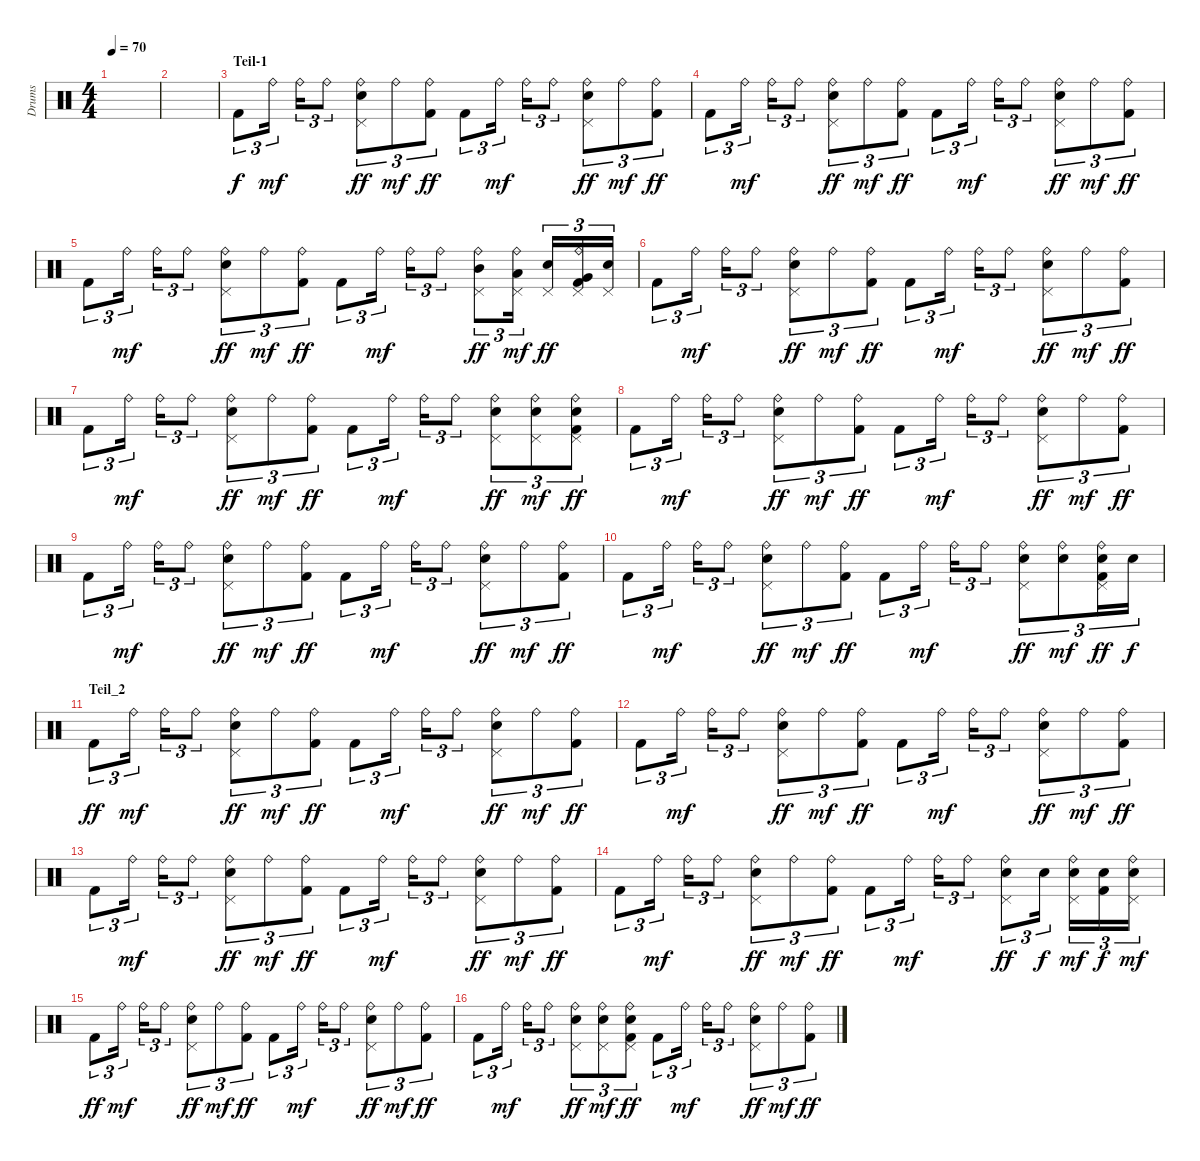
\track ("Drums" "Drums") {instrument percussion}
\staff {score}
\articulation defaults
\ts (4 4)
\tempo 70
\clef neutral
\ks c
|
|
\section ("" "Teil-1")
"Kick (hit) 2".8{tu (3 2)} "Ride (bell)".16{tu (3 2) dy mf} "Ride (bell)".16{tu (3 2)} "Ride (bell)".8{tu (3 2)} ("Ride (bell)" "Pedal Hi-Hat (hit)" "Electric Snare (hit)").8{tu (3 2) dy ff} "Ride (bell)".8{tu (3 2) dy mf} ("Ride (bell)" "Kick (hit) 2").8{tu (3 2) dy ff} "Kick (hit) 2".8{tu (3 2)} "Ride (bell)".16{tu (3 2) dy mf} "Ride (bell)".16{tu (3 2)} "Ride (bell)".8{tu (3 2)} ("Ride (bell)" "Pedal Hi-Hat (hit)" "Electric Snare (hit)").8{tu (3 2) dy ff} "Ride (bell)".8{tu (3 2) dy mf} ("Ride (bell)" "Kick (hit) 2").8{tu (3 2) dy ff} |
"Kick (hit) 2".8{tu (3 2)} "Ride (bell)".16{tu (3 2) dy mf} "Ride (bell)".16{tu (3 2)} "Ride (bell)".8{tu (3 2)} ("Ride (bell)" "Pedal Hi-Hat (hit)" "Electric Snare (hit)").8{tu (3 2) dy ff} "Ride (bell)".8{tu (3 2) dy mf} ("Ride (bell)" "Kick (hit) 2").8{tu (3 2) dy ff} "Kick (hit) 2".8{tu (3 2)} "Ride (bell)".16{tu (3 2) dy mf} "Ride (bell)".16{tu (3 2)} "Ride (bell)".8{tu (3 2)} ("Ride (bell)" "Pedal Hi-Hat (hit)" "Electric Snare (hit)").8{tu (3 2) dy ff} "Ride (bell)".8{tu (3 2) dy mf} ("Ride (bell)" "Kick (hit) 2").8{tu (3 2) dy ff} |
"Kick (hit) 2".8{tu (3 2)} "Ride (bell)".16{tu (3 2) dy mf} "Ride (bell)".16{tu (3 2)} "Ride (bell)".8{tu (3 2)} ("Ride (bell)" "Pedal Hi-Hat (hit)" "Electric Snare (hit)").8{tu (3 2) dy ff} "Ride (bell)".8{tu (3 2) dy mf} ("Ride (bell)" "Kick (hit) 2").8{tu (3 2) dy ff} "Kick (hit) 2".8{tu (3 2)} "Ride (bell)".16{tu (3 2) dy mf} "Ride (bell)".16{tu (3 2)} "Ride (bell)".8{tu (3 2)} ("Ride (bell)" "Pedal Hi-Hat (hit)" "Mid Tom (hit)").8{tu (3 2) dy ff} ("Ride (bell)" "Pedal Hi-Hat (hit)" "Low Tom (hit)").16{tu (3 2) dy mf} ("Pedal Hi-Hat (hit)" "Electric Snare (hit)").16{tu (3 2) dy ff} ("Ride (bell)" "Pedal Hi-Hat (hit)" "Very Low Tom (hit)" "Kick (hit) 2").16{tu (3 2)} ("Pedal Hi-Hat (hit)" "Electric Snare (hit)").16{tu (3 2)} |
"Kick (hit) 2".8{tu (3 2)} "Ride (bell)".16{tu (3 2) dy mf} "Ride (bell)".16{tu (3 2)} "Ride (bell)".8{tu (3 2)} ("Ride (bell)" "Pedal Hi-Hat (hit)" "Electric Snare (hit)").8{tu (3 2) dy ff} "Ride (bell)".8{tu (3 2) dy mf} ("Ride (bell)" "Kick (hit) 2").8{tu (3 2) dy ff} "Kick (hit) 2".8{tu (3 2)} "Ride (bell)".16{tu (3 2) dy mf} "Ride (bell)".16{tu (3 2)} "Ride (bell)".8{tu (3 2)} ("Ride (bell)" "Pedal Hi-Hat (hit)" "Electric Snare (hit)").8{tu (3 2) dy ff} "Ride (bell)".8{tu (3 2) dy mf} ("Ride (bell)" "Kick (hit) 2").8{tu (3 2) dy ff} |
"Kick (hit) 2".8{tu (3 2)} "Ride (bell)".16{tu (3 2) dy mf} "Ride (bell)".16{tu (3 2)} "Ride (bell)".8{tu (3 2)} ("Ride (bell)" "Pedal Hi-Hat (hit)" "Electric Snare (hit)").8{tu (3 2) dy ff} "Ride (bell)".8{tu (3 2) dy mf} ("Ride (bell)" "Kick (hit) 2").8{tu (3 2) dy ff} "Kick (hit) 2".8{tu (3 2)} "Ride (bell)".16{tu (3 2) dy mf} "Ride (bell)".16{tu (3 2)} "Ride (bell)".8{tu (3 2)} ("Ride (bell)" "Pedal Hi-Hat (hit)" "Electric Snare (hit)").8{tu (3 2) dy ff} ("Ride (bell)" "Pedal Hi-Hat (hit)" "Electric Snare (hit)").8{tu (3 2) dy mf} ("Ride (bell)" "Pedal Hi-Hat (hit)" "Electric Snare (hit)" "Kick (hit) 2").8{tu (3 2) dy ff} |
"Kick (hit) 2".8{tu (3 2)} "Ride (bell)".16{tu (3 2) dy mf} "Ride (bell)".16{tu (3 2)} "Ride (bell)".8{tu (3 2)} ("Ride (bell)" "Pedal Hi-Hat (hit)" "Electric Snare (hit)").8{tu (3 2) dy ff} "Ride (bell)".8{tu (3 2) dy mf} ("Ride (bell)" "Kick (hit) 2").8{tu (3 2) dy ff} "Kick (hit) 2".8{tu (3 2)} "Ride (bell)".16{tu (3 2) dy mf} "Ride (bell)".16{tu (3 2)} "Ride (bell)".8{tu (3 2)} ("Ride (bell)" "Pedal Hi-Hat (hit)" "Electric Snare (hit)").8{tu (3 2) dy ff} "Ride (bell)".8{tu (3 2) dy mf} ("Ride (bell)" "Kick (hit) 2").8{tu (3 2) dy ff} |
"Kick (hit) 2".8{tu (3 2)} "Ride (bell)".16{tu (3 2) dy mf} "Ride (bell)".16{tu (3 2)} "Ride (bell)".8{tu (3 2)} ("Ride (bell)" "Pedal Hi-Hat (hit)" "Electric Snare (hit)").8{tu (3 2) dy ff} "Ride (bell)".8{tu (3 2) dy mf} ("Ride (bell)" "Kick (hit) 2").8{tu (3 2) dy ff} "Kick (hit) 2".8{tu (3 2)} "Ride (bell)".16{tu (3 2) dy mf} "Ride (bell)".16{tu (3 2)} "Ride (bell)".8{tu (3 2)} ("Ride (bell)" "Pedal Hi-Hat (hit)" "Electric Snare (hit)").8{tu (3 2) dy ff} "Ride (bell)".8{tu (3 2) dy mf} ("Ride (bell)" "Kick (hit) 2").8{tu (3 2) dy ff} |
"Kick (hit) 2".8{tu (3 2)} "Ride (bell)".16{tu (3 2) dy mf} "Ride (bell)".16{tu (3 2)} "Ride (bell)".8{tu (3 2)} ("Ride (bell)" "Pedal Hi-Hat (hit)" "Electric Snare (hit)").8{tu (3 2) dy ff} "Ride (bell)".8{tu (3 2) dy mf} ("Ride (bell)" "Kick (hit) 2").8{tu (3 2) dy ff} "Kick (hit) 2".8{tu (3 2)} "Ride (bell)".16{tu (3 2) dy mf} "Ride (bell)".16{tu (3 2)} "Ride (bell)".8{tu (3 2)} ("Ride (bell)" "Pedal Hi-Hat (hit)" "Electric Snare (hit)").8{tu (3 2) dy ff} ("Ride (bell)" "Electric Snare (hit)").8{tu (3 2) dy mf} ("Ride (bell)" "Pedal Hi-Hat (hit)" "Electric Snare (hit)" "Kick (hit) 2").16{tu (3 2) dy ff} "Electric Snare (hit)".16{tu (3 2) dy f} |
\section ("" "Teil_2")
"Kick (hit) 2".8{tu (3 2) dy ff} "Ride (bell)".16{tu (3 2) dy mf} "Ride (bell)".16{tu (3 2)} "Ride (bell)".8{tu (3 2)} ("Ride (bell)" "Pedal Hi-Hat (hit)" "Electric Snare (hit)").8{tu (3 2) dy ff} "Ride (bell)".8{tu (3 2) dy mf} ("Ride (bell)" "Kick (hit) 2").8{tu (3 2) dy ff} "Kick (hit) 2".8{tu (3 2)} "Ride (bell)".16{tu (3 2) dy mf} "Ride (bell)".16{tu (3 2)} "Ride (bell)".8{tu (3 2)} ("Ride (bell)" "Pedal Hi-Hat (hit)" "Electric Snare (hit)").8{tu (3 2) dy ff} "Ride (bell)".8{tu (3 2) dy mf} ("Ride (bell)" "Kick (hit) 2").8{tu (3 2) dy ff} |
"Kick (hit) 2".8{tu (3 2)} "Ride (bell)".16{tu (3 2) dy mf} "Ride (bell)".16{tu (3 2)} "Ride (bell)".8{tu (3 2)} ("Ride (bell)" "Pedal Hi-Hat (hit)" "Electric Snare (hit)").8{tu (3 2) dy ff} "Ride (bell)".8{tu (3 2) dy mf} ("Ride (bell)" "Kick (hit) 2").8{tu (3 2) dy ff} "Kick (hit) 2".8{tu (3 2)} "Ride (bell)".16{tu (3 2) dy mf} "Ride (bell)".16{tu (3 2)} "Ride (bell)".8{tu (3 2)} ("Ride (bell)" "Pedal Hi-Hat (hit)" "Electric Snare (hit)").8{tu (3 2) dy ff} "Ride (bell)".8{tu (3 2) dy mf} ("Ride (bell)" "Kick (hit) 2").8{tu (3 2) dy ff} |
"Kick (hit) 2".8{tu (3 2)} "Ride (bell)".16{tu (3 2) dy mf} "Ride (bell)".16{tu (3 2)} "Ride (bell)".8{tu (3 2)} ("Ride (bell)" "Pedal Hi-Hat (hit)" "Electric Snare (hit)").8{tu (3 2) dy ff} "Ride (bell)".8{tu (3 2) dy mf} ("Ride (bell)" "Kick (hit) 2").8{tu (3 2) dy ff} "Kick (hit) 2".8{tu (3 2)} "Ride (bell)".16{tu (3 2) dy mf} "Ride (bell)".16{tu (3 2)} "Ride (bell)".8{tu (3 2)} ("Ride (bell)" "Pedal Hi-Hat (hit)" "Electric Snare (hit)").8{tu (3 2) dy ff} "Ride (bell)".8{tu (3 2) dy mf} ("Ride (bell)" "Kick (hit) 2").8{tu (3 2) dy ff} |
"Kick (hit) 2".8{tu (3 2)} "Ride (bell)".16{tu (3 2) dy mf} "Ride (bell)".16{tu (3 2)} "Ride (bell)".8{tu (3 2)} ("Ride (bell)" "Pedal Hi-Hat (hit)" "Electric Snare (hit)").8{tu (3 2) dy ff} "Ride (bell)".8{tu (3 2) dy mf} ("Ride (bell)" "Kick (hit) 2").8{tu (3 2) dy ff} "Kick (hit) 2".8{tu (3 2)} "Ride (bell)".16{tu (3 2) dy mf} "Ride (bell)".16{tu (3 2)} "Ride (bell)".8{tu (3 2)} ("Ride (bell)" "Pedal Hi-Hat (hit)" "Electric Snare (hit)").8{tu (3 2) dy ff} "Electric Snare (hit)".16{tu (3 2) dy f} ("Ride (bell)" "Pedal Hi-Hat (hit)" "Electric Snare (hit)").16{tu (3 2) dy mf} ("Electric Snare (hit)" "Kick (hit) 2").16{tu (3 2) dy f} ("Ride (bell)" "Pedal Hi-Hat (hit)" "Electric Snare (hit)").16{tu (3 2) dy mf} |
"Kick (hit) 2".8{tu (3 2) dy ff} "Ride (bell)".16{tu (3 2) dy mf} "Ride (bell)".16{tu (3 2)} "Ride (bell)".8{tu (3 2)} ("Ride (bell)" "Pedal Hi-Hat (hit)" "Electric Snare (hit)").8{tu (3 2) dy ff} "Ride (bell)".8{tu (3 2) dy mf} ("Ride (bell)" "Kick (hit) 2").8{tu (3 2) dy ff} "Kick (hit) 2".8{tu (3 2)} "Ride (bell)".16{tu (3 2) dy mf} "Ride (bell)".16{tu (3 2)} "Ride (bell)".8{tu (3 2)} ("Ride (bell)" "Pedal Hi-Hat (hit)" "Electric Snare (hit)").8{tu (3 2) dy ff} "Ride (bell)".8{tu (3 2) dy mf} ("Ride (bell)" "Kick (hit) 2").8{tu (3 2) dy ff} |
"Kick (hit) 2".8{tu (3 2)} "Ride (bell)".16{tu (3 2) dy mf} "Ride (bell)".16{tu (3 2)} "Ride (bell)".8{tu (3 2)} ("Ride (bell)" "Pedal Hi-Hat (hit)" "Electric Snare (hit)").8{tu (3 2) dy ff} ("Ride (bell)" "Pedal Hi-Hat (hit)" "Electric Snare (hit)").8{tu (3 2) dy mf} ("Ride (bell)" "Pedal Hi-Hat (hit)" "Electric Snare (hit)" "Kick (hit) 2").8{tu (3 2) dy ff} "Kick (hit) 2".8{tu (3 2)} "Ride (bell)".16{tu (3 2) dy mf} "Ride (bell)".16{tu (3 2)} "Ride (bell)".8{tu (3 2)} ("Ride (bell)" "Pedal Hi-Hat (hit)" "Electric Snare (hit)").8{tu (3 2) dy ff} "Ride (bell)".8{tu (3 2) dy mf} ("Ride (bell)" "Kick (hit) 2").8{tu (3 2) dy ff}
